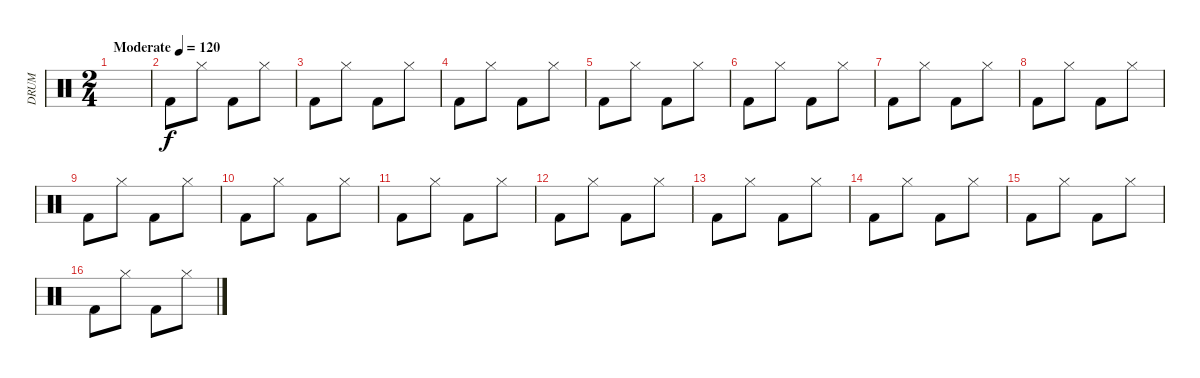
\track ("DRUM" "DRUM") {instrument percussion}
\staff {score}
\articulation defaults
\ts (2 4)
\tempo (120 "Moderate")
\clef neutral
\ks c
|
"Kick (hit) 2".8 "Hi-Hat (closed)".8 "Kick (hit) 2".8 "Hi-Hat (closed)".8 |
"Kick (hit) 2".8 "Hi-Hat (closed)".8 "Kick (hit) 2".8 "Hi-Hat (closed)".8 |
"Kick (hit) 2".8 "Hi-Hat (closed)".8 "Kick (hit) 2".8 "Hi-Hat (closed)".8 |
"Kick (hit) 2".8 "Hi-Hat (closed)".8 "Kick (hit) 2".8 "Hi-Hat (closed)".8 |
"Kick (hit) 2".8 "Hi-Hat (closed)".8 "Kick (hit) 2".8 "Hi-Hat (closed)".8 |
"Kick (hit) 2".8 "Hi-Hat (closed)".8 "Kick (hit) 2".8 "Hi-Hat (closed)".8 |
"Kick (hit) 2".8 "Hi-Hat (closed)".8 "Kick (hit) 2".8 "Hi-Hat (closed)".8 |
"Kick (hit) 2".8 "Hi-Hat (closed)".8 "Kick (hit) 2".8 "Hi-Hat (closed)".8 |
"Kick (hit) 2".8 "Hi-Hat (closed)".8 "Kick (hit) 2".8 "Hi-Hat (closed)".8 |
"Kick (hit) 2".8 "Hi-Hat (closed)".8 "Kick (hit) 2".8 "Hi-Hat (closed)".8 |
"Kick (hit) 2".8 "Hi-Hat (closed)".8 "Kick (hit) 2".8 "Hi-Hat (closed)".8 |
"Kick (hit) 2".8 "Hi-Hat (closed)".8 "Kick (hit) 2".8 "Hi-Hat (closed)".8 |
"Kick (hit) 2".8 "Hi-Hat (closed)".8 "Kick (hit) 2".8 "Hi-Hat (closed)".8 |
"Kick (hit) 2".8 "Hi-Hat (closed)".8 "Kick (hit) 2".8 "Hi-Hat (closed)".8 |
"Kick (hit) 2".8 "Hi-Hat (closed)".8 "Kick (hit) 2".8 "Hi-Hat (closed)".8
